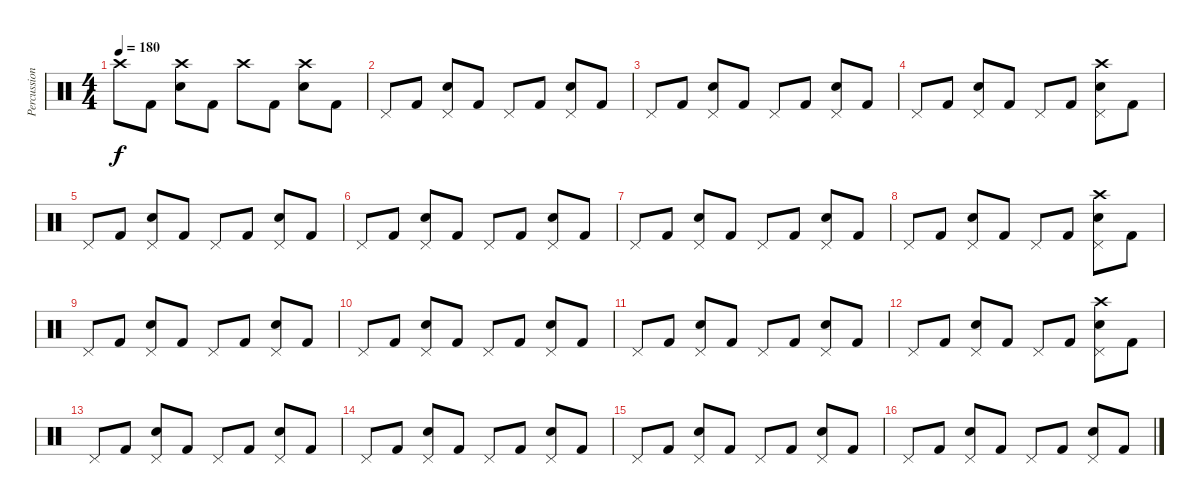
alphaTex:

\track ("Percussion" "Percussion") {instrument percussion}
\staff {score}
\articulation defaults
\ts (4 4)
\tempo 180
\clef neutral
\ks c "Crash high (hit)".8{dy f} "Kick (hit) 2".8
("Crash high (hit)" "Electric Snare (hit)").8 "Kick (hit) 2".8 "Crash high (hit)".8 "Kick (hit) 2".8 ("Crash high (hit)" "Electric Snare (hit)").8 "Kick (hit) 2".8 |
"Pedal Hi-Hat (hit)".8 "Kick (hit) 2".8 ("Pedal Hi-Hat (hit)" "Electric Snare (hit)").8 "Kick (hit) 2".8 "Pedal Hi-Hat (hit)".8 "Kick (hit) 2".8 ("Pedal Hi-Hat (hit)" "Electric Snare (hit)").8 "Kick (hit) 2".8 |
"Pedal Hi-Hat (hit)".8 "Kick (hit) 2".8 ("Pedal Hi-Hat (hit)" "Electric Snare (hit)").8 "Kick (hit) 2".8 "Pedal Hi-Hat (hit)".8 "Kick (hit) 2".8 ("Pedal Hi-Hat (hit)" "Electric Snare (hit)").8 "Kick (hit) 2".8 |
"Pedal Hi-Hat (hit)".8 "Kick (hit) 2".8 ("Pedal Hi-Hat (hit)" "Electric Snare (hit)").8 "Kick (hit) 2".8 "Pedal Hi-Hat (hit)".8 "Kick (hit) 2".8 ("Crash high (hit)" "Pedal Hi-Hat (hit)" "Electric Snare (hit)").8 "Kick (hit) 2".8 |
"Pedal Hi-Hat (hit)".8 "Kick (hit) 2".8 ("Pedal Hi-Hat (hit)" "Electric Snare (hit)").8 "Kick (hit) 2".8 "Pedal Hi-Hat (hit)".8 "Kick (hit) 2".8 ("Pedal Hi-Hat (hit)" "Electric Snare (hit)").8 "Kick (hit) 2".8 |
"Pedal Hi-Hat (hit)".8 "Kick (hit) 2".8 ("Pedal Hi-Hat (hit)" "Electric Snare (hit)").8 "Kick (hit) 2".8 "Pedal Hi-Hat (hit)".8 "Kick (hit) 2".8 ("Pedal Hi-Hat (hit)" "Electric Snare (hit)").8 "Kick (hit) 2".8 |
"Pedal Hi-Hat (hit)".8 "Kick (hit) 2".8 ("Pedal Hi-Hat (hit)" "Electric Snare (hit)").8 "Kick (hit) 2".8 "Pedal Hi-Hat (hit)".8 "Kick (hit) 2".8 ("Pedal Hi-Hat (hit)" "Electric Snare (hit)").8 "Kick (hit) 2".8 |
"Pedal Hi-Hat (hit)".8 "Kick (hit) 2".8 ("Pedal Hi-Hat (hit)" "Electric Snare (hit)").8 "Kick (hit) 2".8 "Pedal Hi-Hat (hit)".8 "Kick (hit) 2".8 ("Crash high (hit)" "Pedal Hi-Hat (hit)" "Electric Snare (hit)").8 "Kick (hit) 2".8 |
"Pedal Hi-Hat (hit)".8 "Kick (hit) 2".8 ("Pedal Hi-Hat (hit)" "Electric Snare (hit)").8 "Kick (hit) 2".8 "Pedal Hi-Hat (hit)".8 "Kick (hit) 2".8 ("Pedal Hi-Hat (hit)" "Electric Snare (hit)").8 "Kick (hit) 2".8 |
"Pedal Hi-Hat (hit)".8 "Kick (hit) 2".8 ("Pedal Hi-Hat (hit)" "Electric Snare (hit)").8 "Kick (hit) 2".8 "Pedal Hi-Hat (hit)".8 "Kick (hit) 2".8 ("Pedal Hi-Hat (hit)" "Electric Snare (hit)").8 "Kick (hit) 2".8 |
"Pedal Hi-Hat (hit)".8 "Kick (hit) 2".8 ("Pedal Hi-Hat (hit)" "Electric Snare (hit)").8 "Kick (hit) 2".8 "Pedal Hi-Hat (hit)".8 "Kick (hit) 2".8 ("Pedal Hi-Hat (hit)" "Electric Snare (hit)").8 "Kick (hit) 2".8 |
"Pedal Hi-Hat (hit)".8 "Kick (hit) 2".8 ("Pedal Hi-Hat (hit)" "Electric Snare (hit)").8 "Kick (hit) 2".8 "Pedal Hi-Hat (hit)".8 "Kick (hit) 2".8 ("Crash high (hit)" "Pedal Hi-Hat (hit)" "Electric Snare (hit)").8 "Kick (hit) 2".8 |
"Pedal Hi-Hat (hit)".8 "Kick (hit) 2".8 ("Pedal Hi-Hat (hit)" "Electric Snare (hit)").8 "Kick (hit) 2".8 "Pedal Hi-Hat (hit)".8 "Kick (hit) 2".8 ("Pedal Hi-Hat (hit)" "Electric Snare (hit)").8 "Kick (hit) 2".8 |
"Pedal Hi-Hat (hit)".8 "Kick (hit) 2".8 ("Pedal Hi-Hat (hit)" "Electric Snare (hit)").8 "Kick (hit) 2".8 "Pedal Hi-Hat (hit)".8 "Kick (hit) 2".8 ("Pedal Hi-Hat (hit)" "Electric Snare (hit)").8 "Kick (hit) 2".8 |
"Pedal Hi-Hat (hit)".8 "Kick (hit) 2".8 ("Pedal Hi-Hat (hit)" "Electric Snare (hit)").8 "Kick (hit) 2".8 "Pedal Hi-Hat (hit)".8 "Kick (hit) 2".8 ("Pedal Hi-Hat (hit)" "Electric Snare (hit)").8 "Kick (hit) 2".8 |
"Pedal Hi-Hat (hit)".8 "Kick (hit) 2".8 ("Pedal Hi-Hat (hit)" "Electric Snare (hit)").8 "Kick (hit) 2".8 "Pedal Hi-Hat (hit)".8 "Kick (hit) 2".8 ("Pedal Hi-Hat (hit)" "Electric Snare (hit)").8 "Kick (hit) 2".8
